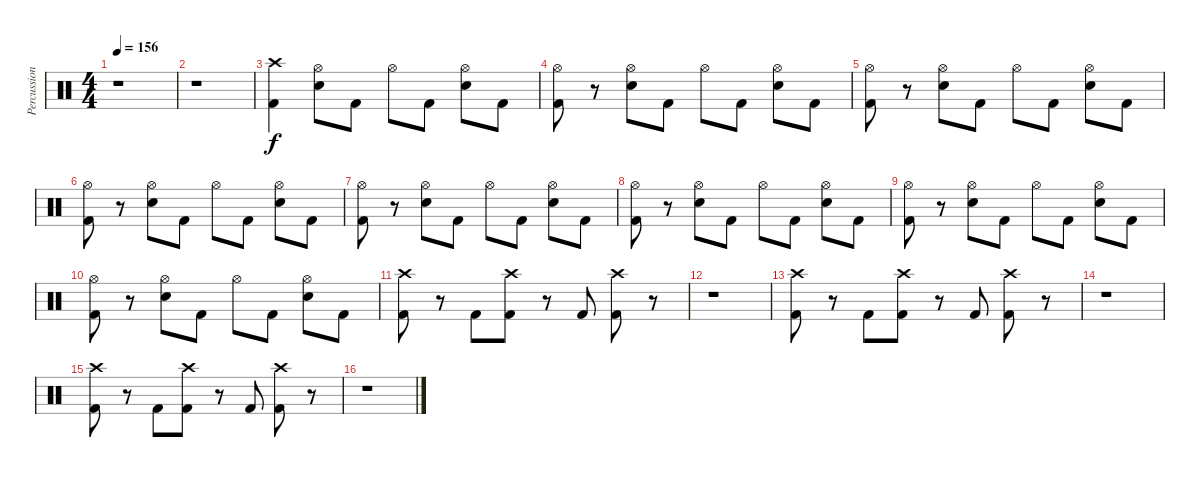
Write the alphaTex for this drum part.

\track ("Percussion" "Percussion") {instrument percussion}
\staff {score}
\articulation defaults
\ts (4 4)
\tempo 156
\clef neutral
\ks c
r.1{dy f} |
r.1 |
("Crash high (hit)" "Kick (hit) 2").4 ("Hi-Hat (open)" "Snare (hit) 2").8 "Kick (hit) 2".8 "Hi-Hat (open)".8 "Kick (hit) 2".8 ("Hi-Hat (open)" "Snare (hit) 2").8 "Kick (hit) 2".8 |
("Hi-Hat (open)" "Kick (hit) 2").8 r.8 ("Hi-Hat (open)" "Snare (hit) 2").8 "Kick (hit) 2".8 "Hi-Hat (open)".8 "Kick (hit) 2".8 ("Hi-Hat (open)" "Snare (hit) 2").8 "Kick (hit) 2".8 |
("Hi-Hat (open)" "Kick (hit) 2").8 r.8 ("Hi-Hat (open)" "Snare (hit) 2").8 "Kick (hit) 2".8 "Hi-Hat (open)".8 "Kick (hit) 2".8 ("Hi-Hat (open)" "Snare (hit) 2").8 "Kick (hit) 2".8 |
("Hi-Hat (open)" "Kick (hit) 2").8 r.8 ("Hi-Hat (open)" "Snare (hit) 2").8 "Kick (hit) 2".8 "Hi-Hat (open)".8 "Kick (hit) 2".8 ("Hi-Hat (open)" "Snare (hit) 2").8 "Kick (hit) 2".8 |
("Hi-Hat (open)" "Kick (hit) 2").8 r.8 ("Hi-Hat (open)" "Snare (hit) 2").8 "Kick (hit) 2".8 "Hi-Hat (open)".8 "Kick (hit) 2".8 ("Hi-Hat (open)" "Snare (hit) 2").8 "Kick (hit) 2".8 |
("Hi-Hat (open)" "Kick (hit) 2").8 r.8 ("Hi-Hat (open)" "Snare (hit) 2").8 "Kick (hit) 2".8 "Hi-Hat (open)".8 "Kick (hit) 2".8 ("Hi-Hat (open)" "Snare (hit) 2").8 "Kick (hit) 2".8 |
("Hi-Hat (open)" "Kick (hit) 2").8 r.8 ("Hi-Hat (open)" "Snare (hit) 2").8 "Kick (hit) 2".8 "Hi-Hat (open)".8 "Kick (hit) 2".8 ("Hi-Hat (open)" "Snare (hit) 2").8 "Kick (hit) 2".8 |
("Hi-Hat (open)" "Kick (hit) 2").8 r.8 ("Hi-Hat (open)" "Snare (hit) 2").8 "Kick (hit) 2".8 "Hi-Hat (open)".8 "Kick (hit) 2".8 ("Hi-Hat (open)" "Snare (hit) 2").8 "Kick (hit) 2".8 |
("Crash high (hit)" "Kick (hit) 2").8 r.8 "Kick (hit) 2".8 ("Crash high (hit)" "Kick (hit) 2").8 r.8 "Kick (hit) 2".8 ("Crash high (hit)" "Kick (hit) 2").8 r.8 |
r.1 |
("Crash high (hit)" "Kick (hit) 2").8 r.8 "Kick (hit) 2".8 ("Crash high (hit)" "Kick (hit) 2").8 r.8 "Kick (hit) 2".8 ("Crash high (hit)" "Kick (hit) 2").8 r.8 |
r.1 |
("Crash high (hit)" "Kick (hit) 2").8 r.8 "Kick (hit) 2".8 ("Crash high (hit)" "Kick (hit) 2").8 r.8 "Kick (hit) 2".8 ("Crash high (hit)" "Kick (hit) 2").8 r.8 |
r.1
